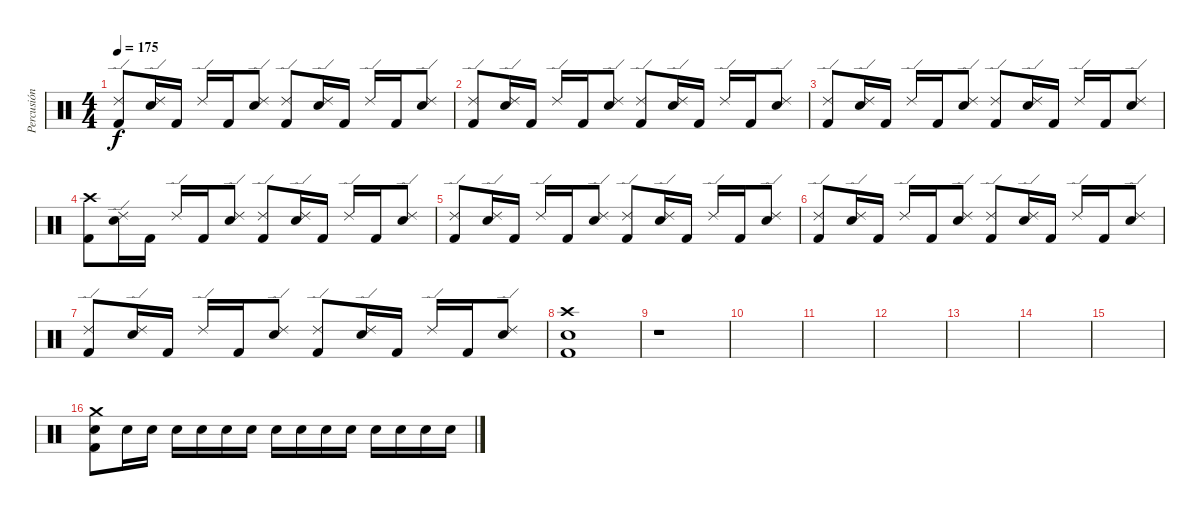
\track ("Percusión" "Percusión") {instrument percussion}
\staff {score}
\articulation defaults
\ts (4 4)
\tempo 175
\clef neutral
\ks c
("Ride (edge) 2" "Kick (hit) 2").8{dy f} ("Ride (edge) 2" "Electric Snare (hit)").16 "Kick (hit) 2".16 "Ride (edge) 2".16 "Kick (hit) 2".16 ("Ride (edge) 2" "Electric Snare (hit)").8 ("Ride (edge) 2" "Kick (hit) 2").8 ("Ride (edge) 2" "Electric Snare (hit)").16 "Kick (hit) 2".16 "Ride (edge) 2".16 "Kick (hit) 2".16 ("Ride (edge) 2" "Electric Snare (hit)").8 |
("Ride (edge) 2" "Kick (hit) 2").8 ("Ride (edge) 2" "Electric Snare (hit)").16 "Kick (hit) 2".16 "Ride (edge) 2".16 "Kick (hit) 2".16 ("Ride (edge) 2" "Electric Snare (hit)").8 ("Ride (edge) 2" "Kick (hit) 2").8 ("Ride (edge) 2" "Electric Snare (hit)").16 "Kick (hit) 2".16 "Ride (edge) 2".16 "Kick (hit) 2".16 ("Ride (edge) 2" "Electric Snare (hit)").8 |
("Ride (edge) 2" "Kick (hit) 2").8 ("Ride (edge) 2" "Electric Snare (hit)").16 "Kick (hit) 2".16 "Ride (edge) 2".16 "Kick (hit) 2".16 ("Ride (edge) 2" "Electric Snare (hit)").8 ("Ride (edge) 2" "Kick (hit) 2").8 ("Ride (edge) 2" "Electric Snare (hit)").16 "Kick (hit) 2".16 "Ride (edge) 2".16 "Kick (hit) 2".16 ("Ride (edge) 2" "Electric Snare (hit)").8 |
("Crash high (hit)" "Kick (hit) 2").8 ("Ride (edge) 2" "Electric Snare (hit)").16 "Kick (hit) 2".16 "Ride (edge) 2".16 "Kick (hit) 2".16 ("Ride (edge) 2" "Electric Snare (hit)").8 ("Ride (edge) 2" "Kick (hit) 2").8 ("Ride (edge) 2" "Electric Snare (hit)").16 "Kick (hit) 2".16 "Ride (edge) 2".16 "Kick (hit) 2".16 ("Ride (edge) 2" "Electric Snare (hit)").8 |
("Ride (edge) 2" "Kick (hit) 2").8 ("Ride (edge) 2" "Electric Snare (hit)").16 "Kick (hit) 2".16 "Ride (edge) 2".16 "Kick (hit) 2".16 ("Ride (edge) 2" "Electric Snare (hit)").8 ("Ride (edge) 2" "Kick (hit) 2").8 ("Ride (edge) 2" "Electric Snare (hit)").16 "Kick (hit) 2".16 "Ride (edge) 2".16 "Kick (hit) 2".16 ("Ride (edge) 2" "Electric Snare (hit)").8 |
("Ride (edge) 2" "Kick (hit) 2").8 ("Ride (edge) 2" "Electric Snare (hit)").16 "Kick (hit) 2".16 "Ride (edge) 2".16 "Kick (hit) 2".16 ("Ride (edge) 2" "Electric Snare (hit)").8 ("Ride (edge) 2" "Kick (hit) 2").8 ("Ride (edge) 2" "Electric Snare (hit)").16 "Kick (hit) 2".16 "Ride (edge) 2".16 "Kick (hit) 2".16 ("Ride (edge) 2" "Electric Snare (hit)").8 |
("Ride (edge) 2" "Kick (hit) 2").8 ("Ride (edge) 2" "Electric Snare (hit)").16 "Kick (hit) 2".16 "Ride (edge) 2".16 "Kick (hit) 2".16 ("Ride (edge) 2" "Electric Snare (hit)").8 ("Ride (edge) 2" "Kick (hit) 2").8 ("Ride (edge) 2" "Electric Snare (hit)").16 "Kick (hit) 2".16 "Ride (edge) 2".16 "Kick (hit) 2".16 ("Ride (edge) 2" "Electric Snare (hit)").8 |
("Crash high (hit)" "Electric Snare (hit)" "Kick (hit) 2").1 |
r.1 |
|
|
|
|
|
|
("Crash medium (hit)" "Electric Snare (hit)" "Kick (hit) 2").8 "Electric Snare (hit)".16 "Electric Snare (hit)".16 "Electric Snare (hit)".16 "Electric Snare (hit)".16 "Electric Snare (hit)".16 "Electric Snare (hit)".16 "Electric Snare (hit)".16 "Electric Snare (hit)".16 "Electric Snare (hit)".16 "Electric Snare (hit)".16 "Electric Snare (hit)".16 "Electric Snare (hit)".16 "Electric Snare (hit)".16 "Electric Snare (hit)".16
